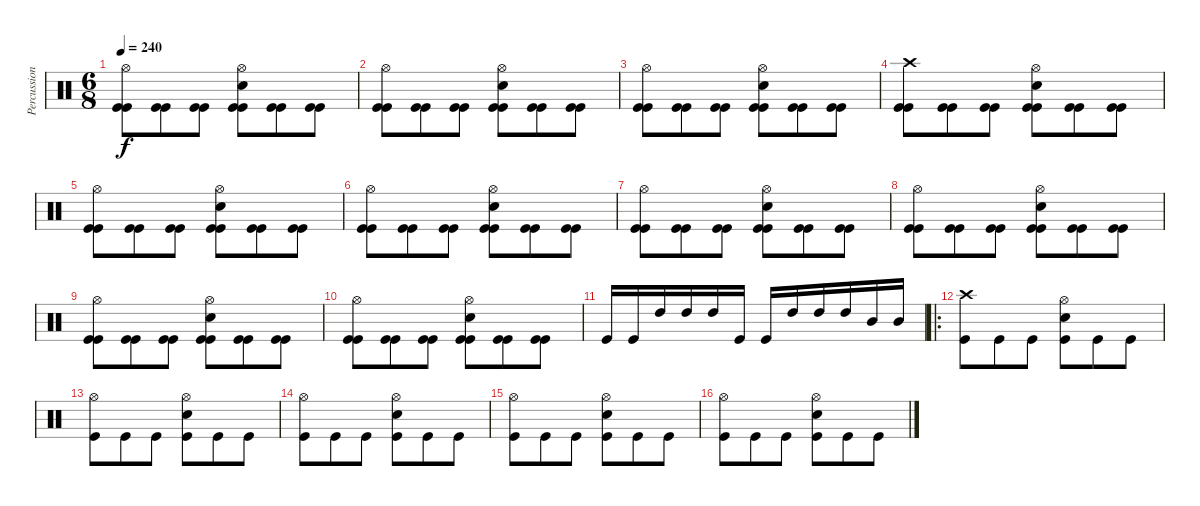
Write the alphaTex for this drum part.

\track ("Percussion" "Percussion") {instrument percussion}
\staff {score}
\articulation defaults
\ts (6 8)
\tempo 240
\clef neutral
\ks c
("Hi-Hat (open)" "Kick (hit)" "Kick (hit)").8{dy f} ("Kick (hit)" "Kick (hit)").8 ("Kick (hit)" "Kick (hit)").8 ("Hi-Hat (open)" "Snare (hit) 2" "Kick (hit)" "Kick (hit)").8 ("Kick (hit)" "Kick (hit)").8 ("Kick (hit)" "Kick (hit)").8 |
("Hi-Hat (open)" "Kick (hit)" "Kick (hit)").8 ("Kick (hit)" "Kick (hit)").8 ("Kick (hit)" "Kick (hit)").8 ("Hi-Hat (open)" "Snare (hit) 2" "Kick (hit)" "Kick (hit)").8 ("Kick (hit)" "Kick (hit)").8 ("Kick (hit)" "Kick (hit)").8 |
("Hi-Hat (open)" "Kick (hit)" "Kick (hit)").8 ("Kick (hit)" "Kick (hit)").8 ("Kick (hit)" "Kick (hit)").8 ("Hi-Hat (open)" "Snare (hit) 2" "Kick (hit)" "Kick (hit)").8 ("Kick (hit)" "Kick (hit)").8 ("Kick (hit)" "Kick (hit)").8 |
("Crash high (hit)" "Kick (hit)" "Kick (hit)").8 ("Kick (hit)" "Kick (hit)").8 ("Kick (hit)" "Kick (hit)").8 ("Hi-Hat (open)" "Snare (hit) 2" "Kick (hit)" "Kick (hit)").8 ("Kick (hit)" "Kick (hit)").8 ("Kick (hit)" "Kick (hit)").8 |
("Hi-Hat (open)" "Kick (hit)" "Kick (hit)").8 ("Kick (hit)" "Kick (hit)").8 ("Kick (hit)" "Kick (hit)").8 ("Hi-Hat (open)" "Snare (hit) 2" "Kick (hit)" "Kick (hit)").8 ("Kick (hit)" "Kick (hit)").8 ("Kick (hit)" "Kick (hit)").8 |
("Hi-Hat (open)" "Kick (hit)" "Kick (hit)").8 ("Kick (hit)" "Kick (hit)").8 ("Kick (hit)" "Kick (hit)").8 ("Hi-Hat (open)" "Snare (hit) 2" "Kick (hit)" "Kick (hit)").8 ("Kick (hit)" "Kick (hit)").8 ("Kick (hit)" "Kick (hit)").8 |
("Hi-Hat (open)" "Kick (hit)" "Kick (hit)").8 ("Kick (hit)" "Kick (hit)").8 ("Kick (hit)" "Kick (hit)").8 ("Hi-Hat (open)" "Snare (hit) 2" "Kick (hit)" "Kick (hit)").8 ("Kick (hit)" "Kick (hit)").8 ("Kick (hit)" "Kick (hit)").8 |
("Hi-Hat (open)" "Kick (hit)" "Kick (hit)").8 ("Kick (hit)" "Kick (hit)").8 ("Kick (hit)" "Kick (hit)").8 ("Hi-Hat (open)" "Snare (hit) 2" "Kick (hit)" "Kick (hit)").8 ("Kick (hit)" "Kick (hit)").8 ("Kick (hit)" "Kick (hit)").8 |
("Hi-Hat (open)" "Kick (hit)" "Kick (hit)").8 ("Kick (hit)" "Kick (hit)").8 ("Kick (hit)" "Kick (hit)").8 ("Hi-Hat (open)" "Snare (hit) 2" "Kick (hit)" "Kick (hit)").8 ("Kick (hit)" "Kick (hit)").8 ("Kick (hit)" "Kick (hit)").8 |
("Hi-Hat (open)" "Kick (hit)" "Kick (hit)").8 ("Kick (hit)" "Kick (hit)").8 ("Kick (hit)" "Kick (hit)").8 ("Hi-Hat (open)" "Snare (hit) 2" "Kick (hit)" "Kick (hit)").8 ("Kick (hit)" "Kick (hit)").8 ("Kick (hit)" "Kick (hit)").8 |
"Kick (hit)".16 "Kick (hit)".16 "High Tom (hit)".16 "High Tom (hit)".16 "High Tom (hit)".16 "Kick (hit)".16 "Kick (hit)".16 "High Tom (hit)".16 "High Tom (hit)".16 "High Tom (hit)".16 "Mid Tom (hit)".16 "Mid Tom (hit)".16 |
\ro
("Crash high (hit)" "Kick (hit)").8 "Kick (hit)".8 "Kick (hit)".8 ("Hi-Hat (open)" "Snare (hit) 2" "Kick (hit)").8 "Kick (hit)".8 "Kick (hit)".8 |
("Hi-Hat (open)" "Kick (hit)").8 "Kick (hit)".8 "Kick (hit)".8 ("Hi-Hat (open)" "Snare (hit) 2" "Kick (hit)").8 "Kick (hit)".8 "Kick (hit)".8 |
("Hi-Hat (open)" "Kick (hit)").8 "Kick (hit)".8 "Kick (hit)".8 ("Hi-Hat (open)" "Snare (hit) 2" "Kick (hit)").8 "Kick (hit)".8 "Kick (hit)".8 |
("Hi-Hat (open)" "Kick (hit)").8 "Kick (hit)".8 "Kick (hit)".8 ("Hi-Hat (open)" "Snare (hit) 2" "Kick (hit)").8 "Kick (hit)".8 "Kick (hit)".8 |
("Hi-Hat (open)" "Kick (hit)").8 "Kick (hit)".8 "Kick (hit)".8 ("Hi-Hat (open)" "Snare (hit) 2" "Kick (hit)").8 "Kick (hit)".8 "Kick (hit)".8
